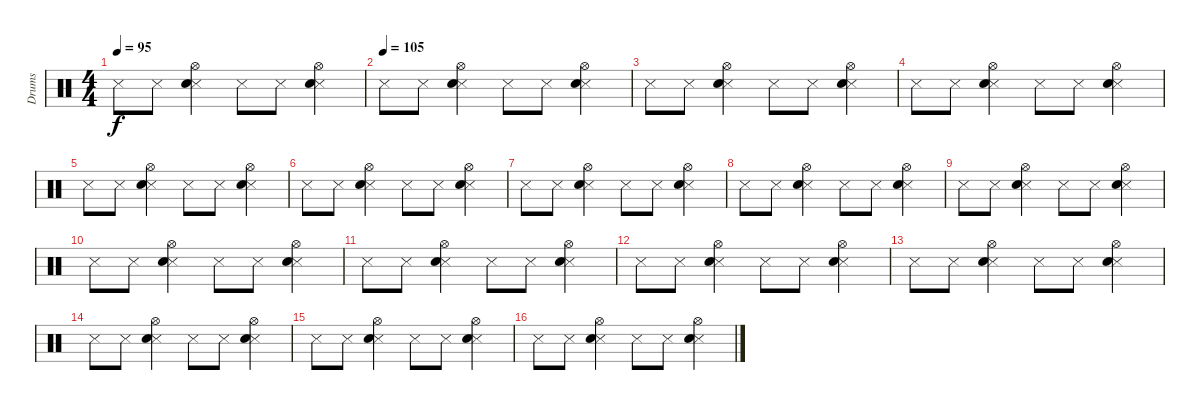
\track ("Drums" "Drums") {instrument percussion}
\staff {score}
\articulation defaults
\ts (4 4)
\tempo 95
\clef neutral
\ks c "Snare (side stick) 3".8{dy f} "Snare (side stick) 3".8
("Snare (side stick) 3" "Hi-Hat (open)" "Snare (hit) 2").4 "Snare (side stick) 3".8 "Snare (side stick) 3".8 ("Snare (side stick) 3" "Hi-Hat (open)" "Snare (hit) 2").4 |
\tempo (105)
"Snare (side stick) 3".8 "Snare (side stick) 3".8 ("Snare (side stick) 3" "Hi-Hat (open)" "Snare (hit) 2").4 "Snare (side stick) 3".8 "Snare (side stick) 3".8 ("Snare (side stick) 3" "Hi-Hat (open)" "Snare (hit) 2").4 |
"Snare (side stick) 3".8 "Snare (side stick) 3".8 ("Snare (side stick) 3" "Hi-Hat (open)" "Snare (hit) 2").4 "Snare (side stick) 3".8 "Snare (side stick) 3".8 ("Snare (side stick) 3" "Hi-Hat (open)" "Snare (hit) 2").4 |
"Snare (side stick) 3".8 "Snare (side stick) 3".8 ("Snare (side stick) 3" "Hi-Hat (open)" "Snare (hit) 2").4 "Snare (side stick) 3".8 "Snare (side stick) 3".8 ("Snare (side stick) 3" "Hi-Hat (open)" "Snare (hit) 2").4 |
"Snare (side stick) 3".8 "Snare (side stick) 3".8 ("Snare (side stick) 3" "Hi-Hat (open)" "Snare (hit) 2").4 "Snare (side stick) 3".8 "Snare (side stick) 3".8 ("Snare (side stick) 3" "Hi-Hat (open)" "Snare (hit) 2").4 |
"Snare (side stick) 3".8 "Snare (side stick) 3".8 ("Snare (side stick) 3" "Hi-Hat (open)" "Snare (hit) 2").4 "Snare (side stick) 3".8 "Snare (side stick) 3".8 ("Snare (side stick) 3" "Hi-Hat (open)" "Snare (hit) 2").4 |
"Snare (side stick) 3".8 "Snare (side stick) 3".8 ("Snare (side stick) 3" "Hi-Hat (open)" "Snare (hit) 2").4 "Snare (side stick) 3".8 "Snare (side stick) 3".8 ("Snare (side stick) 3" "Hi-Hat (open)" "Snare (hit) 2").4 |
"Snare (side stick) 3".8 "Snare (side stick) 3".8 ("Snare (side stick) 3" "Hi-Hat (open)" "Snare (hit) 2").4 "Snare (side stick) 3".8 "Snare (side stick) 3".8 ("Snare (side stick) 3" "Hi-Hat (open)" "Snare (hit) 2").4 |
"Snare (side stick) 3".8 "Snare (side stick) 3".8 ("Snare (side stick) 3" "Hi-Hat (open)" "Snare (hit) 2").4 "Snare (side stick) 3".8 "Snare (side stick) 3".8 ("Snare (side stick) 3" "Hi-Hat (open)" "Snare (hit) 2").4 |
"Snare (side stick) 3".8 "Snare (side stick) 3".8 ("Snare (side stick) 3" "Hi-Hat (open)" "Snare (hit) 2").4 "Snare (side stick) 3".8 "Snare (side stick) 3".8 ("Snare (side stick) 3" "Hi-Hat (open)" "Snare (hit) 2").4 |
"Snare (side stick) 3".8 "Snare (side stick) 3".8 ("Snare (side stick) 3" "Hi-Hat (open)" "Snare (hit) 2").4 "Snare (side stick) 3".8 "Snare (side stick) 3".8 ("Snare (side stick) 3" "Hi-Hat (open)" "Snare (hit) 2").4 |
"Snare (side stick) 3".8 "Snare (side stick) 3".8 ("Snare (side stick) 3" "Hi-Hat (open)" "Snare (hit) 2").4 "Snare (side stick) 3".8 "Snare (side stick) 3".8 ("Snare (side stick) 3" "Hi-Hat (open)" "Snare (hit) 2").4 |
"Snare (side stick) 3".8 "Snare (side stick) 3".8 ("Snare (side stick) 3" "Hi-Hat (open)" "Snare (hit) 2").4 "Snare (side stick) 3".8 "Snare (side stick) 3".8 ("Snare (side stick) 3" "Hi-Hat (open)" "Snare (hit) 2").4 |
"Snare (side stick) 3".8 "Snare (side stick) 3".8 ("Snare (side stick) 3" "Hi-Hat (open)" "Snare (hit) 2").4 "Snare (side stick) 3".8 "Snare (side stick) 3".8 ("Snare (side stick) 3" "Hi-Hat (open)" "Snare (hit) 2").4 |
"Snare (side stick) 3".8 "Snare (side stick) 3".8 ("Snare (side stick) 3" "Hi-Hat (open)" "Snare (hit) 2").4 "Snare (side stick) 3".8 "Snare (side stick) 3".8 ("Snare (side stick) 3" "Hi-Hat (open)" "Snare (hit) 2").4 |
"Snare (side stick) 3".8 "Snare (side stick) 3".8 ("Snare (side stick) 3" "Hi-Hat (open)" "Snare (hit) 2").4 "Snare (side stick) 3".8 "Snare (side stick) 3".8 ("Snare (side stick) 3" "Hi-Hat (open)" "Snare (hit) 2").4
